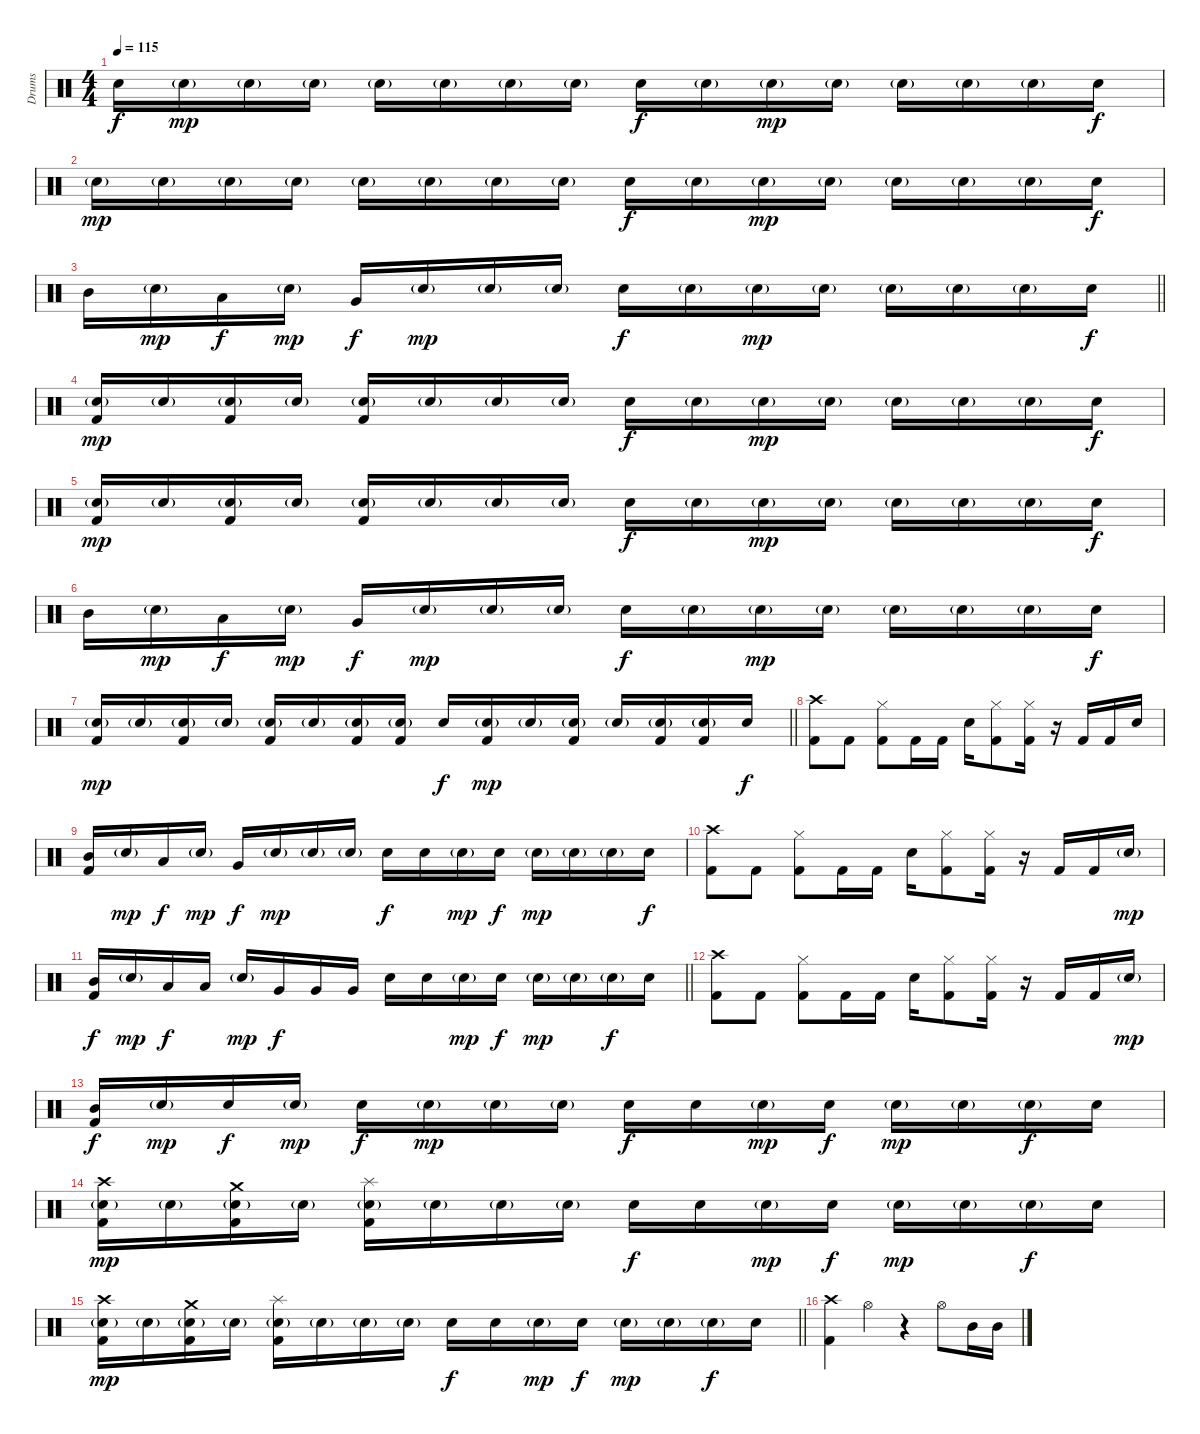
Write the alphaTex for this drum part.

\track ("Drums" "Drums") {instrument percussion}
\staff {score}
\articulation defaults
\ts (4 4)
\tempo 115
\clef neutral
\ks c "Electric Snare (hit)".16{dy f} "Electric Snare (hit)"{g}.16{dy mp} "Electric Snare (hit)"{g}.16 "Electric Snare (hit)"{g}.16 "Electric Snare (hit)"{g}.16 "Electric Snare (hit)"{g}.16 "Electric Snare (hit)"{g}.16 "Electric Snare (hit)"{g}.16 "Electric Snare (hit)".16{dy f} "Electric Snare (hit)"{g}.16 "Electric Snare (hit)"{g}.16{dy mp} "Electric Snare (hit)"{g}.16 "Electric Snare (hit)"{g}.16 "Electric Snare (hit)"{g}.16 "Electric Snare (hit)"{g}.16 "Electric Snare (hit)".16{dy f}
|
"Electric Snare (hit)"{g}.16{dy mp} "Electric Snare (hit)"{g}.16 "Electric Snare (hit)"{g}.16 "Electric Snare (hit)"{g}.16 "Electric Snare (hit)"{g}.16 "Electric Snare (hit)"{g}.16 "Electric Snare (hit)"{g}.16 "Electric Snare (hit)"{g}.16 "Electric Snare (hit)".16{dy f} "Electric Snare (hit)"{g}.16 "Electric Snare (hit)"{g}.16{dy mp} "Electric Snare (hit)"{g}.16 "Electric Snare (hit)"{g}.16 "Electric Snare (hit)"{g}.16 "Electric Snare (hit)"{g}.16 "Electric Snare (hit)".16{dy f} |
\barLineRight lightlight "Mid Tom (hit)".16 "Electric Snare (hit)"{g}.16{dy mp} "Low Tom (hit)".16{dy f} "Electric Snare (hit)"{g}.16{dy mp} "Very Low Tom (hit)".16{dy f} "Electric Snare (hit)"{g}.16{dy mp} "Electric Snare (hit)"{g}.16 "Electric Snare (hit)"{g}.16 "Electric Snare (hit)".16{dy f} "Electric Snare (hit)"{g}.16 "Electric Snare (hit)"{g}.16{dy mp} "Electric Snare (hit)"{g}.16 "Electric Snare (hit)"{g}.16 "Electric Snare (hit)"{g}.16 "Electric Snare (hit)"{g}.16 "Electric Snare (hit)".16{dy f}
|
("Electric Snare (hit)"{g} "Kick (hit) 2").16{dy mp} "Electric Snare (hit)"{g}.16 ("Electric Snare (hit)"{g} "Kick (hit) 2").16 "Electric Snare (hit)"{g}.16 ("Electric Snare (hit)"{g} "Kick (hit) 2").16 "Electric Snare (hit)"{g}.16 "Electric Snare (hit)"{g}.16 "Electric Snare (hit)"{g}.16 "Electric Snare (hit)".16{dy f} "Electric Snare (hit)"{g}.16 "Electric Snare (hit)"{g}.16{dy mp} "Electric Snare (hit)"{g}.16 "Electric Snare (hit)"{g}.16 "Electric Snare (hit)"{g}.16 "Electric Snare (hit)"{g}.16 "Electric Snare (hit)".16{dy f} |
("Electric Snare (hit)"{g} "Kick (hit) 2").16{dy mp} "Electric Snare (hit)"{g}.16 ("Electric Snare (hit)"{g} "Kick (hit) 2").16 "Electric Snare (hit)"{g}.16 ("Electric Snare (hit)"{g} "Kick (hit) 2").16 "Electric Snare (hit)"{g}.16 "Electric Snare (hit)"{g}.16 "Electric Snare (hit)"{g}.16 "Electric Snare (hit)".16{dy f} "Electric Snare (hit)"{g}.16 "Electric Snare (hit)"{g}.16{dy mp} "Electric Snare (hit)"{g}.16 "Electric Snare (hit)"{g}.16 "Electric Snare (hit)"{g}.16 "Electric Snare (hit)"{g}.16 "Electric Snare (hit)".16{dy f} |
"Mid Tom (hit)".16 "Electric Snare (hit)"{g}.16{dy mp} "Low Tom (hit)".16{dy f} "Electric Snare (hit)"{g}.16{dy mp} "Very Low Tom (hit)".16{dy f} "Electric Snare (hit)"{g}.16{dy mp} "Electric Snare (hit)"{g}.16 "Electric Snare (hit)"{g}.16 "Electric Snare (hit)".16{dy f} "Electric Snare (hit)"{g}.16 "Electric Snare (hit)"{g}.16{dy mp} "Electric Snare (hit)"{g}.16 "Electric Snare (hit)"{g}.16 "Electric Snare (hit)"{g}.16 "Electric Snare (hit)"{g}.16 "Electric Snare (hit)".16{dy f} |
\barLineRight lightlight
("Electric Snare (hit)"{g} "Kick (hit) 2").16{dy mp} "Electric Snare (hit)"{g}.16 ("Electric Snare (hit)"{g} "Kick (hit) 2").16 "Electric Snare (hit)"{g}.16 ("Electric Snare (hit)"{g} "Kick (hit) 2").16 "Electric Snare (hit)"{g}.16 ("Electric Snare (hit)"{g} "Kick (hit) 2").16 ("Electric Snare (hit)"{g} "Kick (hit) 2").16 "Electric Snare (hit)".16{dy f} ("Electric Snare (hit)"{g} "Kick (hit) 2").16{dy mp} "Electric Snare (hit)"{g}.16 ("Electric Snare (hit)"{g} "Kick (hit) 2").16 "Electric Snare (hit)"{g}.16 ("Electric Snare (hit)"{g} "Kick (hit) 2").16 ("Electric Snare (hit)"{g} "Kick (hit) 2").16 "Electric Snare (hit)".16{dy f} |
("Crash high (hit)" "Kick (hit) 2").8 "Kick (hit) 2".8 ("Hi-Hat (closed)" "Kick (hit) 2").8 "Kick (hit) 2".16 "Kick (hit) 2".16 "Electric Snare (hit)".16 ("Hi-Hat (closed)" "Kick (hit) 2").8 ("Hi-Hat (closed)" "Kick (hit) 2").16 r.16 "Kick (hit) 2".16 "Kick (hit) 2".16 "Electric Snare (hit)".16 |
("Mid Tom (hit)" "Kick (hit) 2").16 "Electric Snare (hit)"{g}.16{dy mp} "Low Tom (hit)".16{dy f} "Electric Snare (hit)"{g}.16{dy mp} "Very Low Tom (hit)".16{dy f} "Electric Snare (hit)"{g}.16{dy mp} "Electric Snare (hit)"{g}.16 "Electric Snare (hit)"{g}.16 "Electric Snare (hit)".16{dy f} "Electric Snare (hit)".16 "Electric Snare (hit)"{g}.16{dy mp} "Electric Snare (hit)".16{dy f} "Electric Snare (hit)"{g}.16{dy mp} "Electric Snare (hit)"{g}.16 "Electric Snare (hit)"{g}.16 "Electric Snare (hit)".16{dy f} |
("Crash high (hit)" "Kick (hit) 2").8 "Kick (hit) 2".8 ("Hi-Hat (closed)" "Kick (hit) 2").8 "Kick (hit) 2".16 "Kick (hit) 2".16 "Electric Snare (hit)".16 ("Hi-Hat (closed)" "Kick (hit) 2").8 ("Hi-Hat (closed)" "Kick (hit) 2").16 r.16 "Kick (hit) 2".16 "Kick (hit) 2".16 "Electric Snare (hit)"{g}.16{dy mp} |
\barLineRight lightlight
("Mid Tom (hit)" "Kick (hit) 2").16{dy f} "Electric Snare (hit)"{g}.16{dy mp} "Low Tom (hit)".16{dy f} "Low Tom (hit)".16 "Electric Snare (hit)"{g}.16{dy mp} "Very Low Tom (hit)".16{dy f} "Very Low Tom (hit)".16 "Very Low Tom (hit)".16 "Electric Snare (hit)".16 "Electric Snare (hit)".16 "Electric Snare (hit)"{g}.16{dy mp} "Electric Snare (hit)".16{dy f} "Electric Snare (hit)"{g}.16{dy mp} "Electric Snare (hit)"{g}.16 "Electric Snare (hit)"{g}.16{dy f} "Electric Snare (hit)".16 |
("Crash high (hit)" "Kick (hit) 2").8 "Kick (hit) 2".8 ("Hi-Hat (closed)" "Kick (hit) 2").8 "Kick (hit) 2".16 "Kick (hit) 2".16 "Electric Snare (hit)".16 ("Hi-Hat (closed)" "Kick (hit) 2").8 ("Hi-Hat (closed)" "Kick (hit) 2").16 r.16 "Kick (hit) 2".16 "Kick (hit) 2".16 "Electric Snare (hit)"{g}.16{dy mp} |
("Mid Tom (hit)" "Kick (hit) 2").16{dy f} "Electric Snare (hit)"{g}.16{dy mp} "Electric Snare (hit)".16{dy f} "Electric Snare (hit)"{g}.16{dy mp} "Electric Snare (hit)".16{dy f} "Electric Snare (hit)"{g}.16{dy mp} "Electric Snare (hit)"{g}.16 "Electric Snare (hit)"{g}.16 "Electric Snare (hit)".16{dy f} "Electric Snare (hit)".16 "Electric Snare (hit)"{g}.16{dy mp} "Electric Snare (hit)".16{dy f} "Electric Snare (hit)"{g}.16{dy mp} "Electric Snare (hit)"{g}.16 "Electric Snare (hit)"{g}.16{dy f} "Electric Snare (hit)".16 |
("Crash high (hit)" "Electric Snare (hit)"{g} "Kick (hit) 2").16{dy mp} "Electric Snare (hit)"{g}.16 ("Crash medium (hit)" "Electric Snare (hit)"{g} "Kick (hit) 2").16 "Electric Snare (hit)"{g}.16 ("Splash (hit)" "Electric Snare (hit)"{g} "Kick (hit) 2").16 "Electric Snare (hit)"{g}.16 "Electric Snare (hit)"{g}.16 "Electric Snare (hit)"{g}.16 "Electric Snare (hit)".16{dy f} "Electric Snare (hit)".16 "Electric Snare (hit)"{g}.16{dy mp} "Electric Snare (hit)".16{dy f} "Electric Snare (hit)"{g}.16{dy mp} "Electric Snare (hit)"{g}.16 "Electric Snare (hit)"{g}.16{dy f} "Electric Snare (hit)".16 |
\barLineRight lightlight
("Crash high (hit)" "Electric Snare (hit)"{g} "Kick (hit) 2").16{dy mp} "Electric Snare (hit)"{g}.16 ("Crash medium (hit)" "Electric Snare (hit)"{g} "Kick (hit) 2").16 "Electric Snare (hit)"{g}.16 ("Splash (hit)" "Electric Snare (hit)"{g} "Kick (hit) 2").16 "Electric Snare (hit)"{g}.16 "Electric Snare (hit)"{g}.16 "Electric Snare (hit)"{g}.16 "Electric Snare (hit)".16{dy f} "Electric Snare (hit)".16 "Electric Snare (hit)"{g}.16{dy mp} "Electric Snare (hit)".16{dy f} "Electric Snare (hit)"{g}.16{dy mp} "Electric Snare (hit)"{g}.16 "Electric Snare (hit)"{g}.16{dy f} "Electric Snare (hit)".16 |
("Crash high (hit)" "Kick (hit) 2").4 "Hi-Hat (open)".4 r.4 "Hi-Hat (open)".8 "Mid Tom (hit)".16 "Mid Tom (hit)".16
